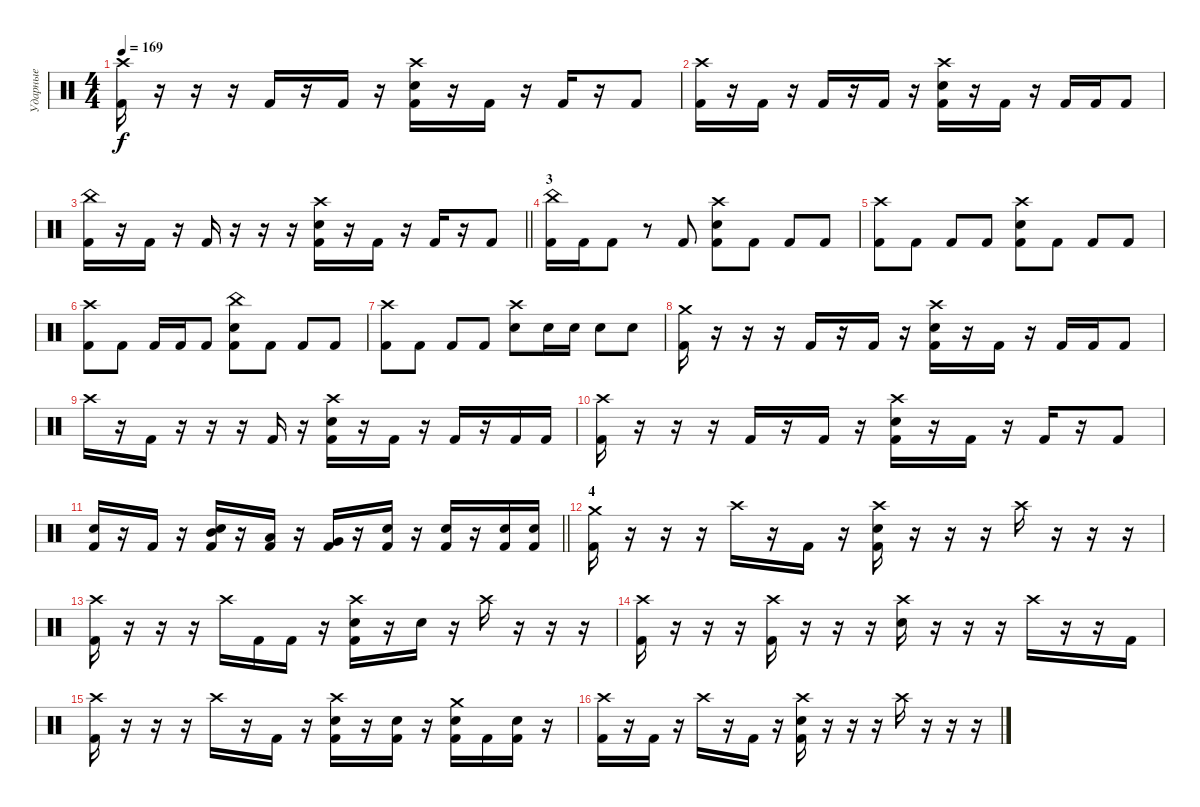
\track ("Ударные" "Ударные") {instrument percussion}
\staff {score}
\articulation defaults
\ts (4 4)
\tempo 169
\clef neutral
\ks c
("Crash high (hit)" "Kick (hit) 2").16{dy f} r.16 r.16 r.16 "Kick (hit) 2".16 r.16 "Kick (hit) 2".16 r.16 ("Crash high (hit)" "Snare (hit) 2" "Kick (hit) 2").16 r.16 "Kick (hit) 2".16 r.16 "Kick (hit) 2".16 r.16 "Kick (hit) 2".8 |
("Crash high (hit)" "Kick (hit) 2").16 r.16 "Kick (hit) 2".16 r.16 "Kick (hit) 2".16 r.16 "Kick (hit) 2".16 r.16 ("Crash high (hit)" "Snare (hit) 2" "Kick (hit) 2").16 r.16 "Kick (hit) 2".16 r.16 "Kick (hit) 2".16 "Kick (hit) 2".16 "Kick (hit) 2".8 |
\barLineRight lightlight
("China (hit)" "Kick (hit) 2").16 r.16 "Kick (hit) 2".16 r.16 "Kick (hit) 2".16 r.16 r.16 r.16 ("Crash high (hit)" "Snare (hit) 2" "Kick (hit) 2").16 r.16 "Kick (hit) 2".16 r.16 "Kick (hit) 2".16 r.16 "Kick (hit) 2".8 |
\section ("" "3")
("China (hit)" "Kick (hit) 2").16 "Kick (hit) 2".16 "Kick (hit) 2".8 r.8 "Kick (hit) 2".8 ("Crash high (hit)" "Snare (hit) 2" "Kick (hit) 2").8 "Kick (hit) 2".8 "Kick (hit) 2".8 "Kick (hit) 2".8 |
("Crash high (hit)" "Kick (hit) 2").8 "Kick (hit) 2".8 "Kick (hit) 2".8 "Kick (hit) 2".8 ("Crash high (hit)" "Snare (hit) 2" "Kick (hit) 2").8 "Kick (hit) 2".8 "Kick (hit) 2".8 "Kick (hit) 2".8 |
("Crash high (hit)" "Kick (hit) 2").8 "Kick (hit) 2".8 "Kick (hit) 2".16 "Kick (hit) 2".16 "Kick (hit) 2".8 ("China (hit)" "Snare (hit) 2" "Kick (hit) 2").8 "Kick (hit) 2".8 "Kick (hit) 2".8 "Kick (hit) 2".8 |
("Crash high (hit)" "Kick (hit) 2").8 "Kick (hit) 2".8 "Kick (hit) 2".8 "Kick (hit) 2".8 ("Crash high (hit)" "Snare (hit) 2").8 "Snare (hit) 2".16 "Snare (hit) 2".16 "Snare (hit) 2".8 "Snare (hit) 2".8 |
("Crash medium (hit)" "Kick (hit) 2").16 r.16 r.16 r.16 "Kick (hit) 2".16 r.16 "Kick (hit) 2".16 r.16 ("Crash high (hit)" "Snare (hit) 2" "Kick (hit) 2").16 r.16 "Kick (hit) 2".16 r.16 "Kick (hit) 2".16 "Kick (hit) 2".16 "Kick (hit) 2".8 |
"Crash high (hit)".16 r.16 "Kick (hit) 2".16 r.16 r.16 r.16 "Kick (hit) 2".16 r.16 ("Crash high (hit)" "Snare (hit) 2" "Kick (hit) 2").16 r.16 "Kick (hit) 2".16 r.16 "Kick (hit) 2".16 r.16 "Kick (hit) 2".16 "Kick (hit) 2".16 |
("Crash high (hit)" "Kick (hit) 2").16 r.16 r.16 r.16 "Kick (hit) 2".16 r.16 "Kick (hit) 2".16 r.16 ("Crash high (hit)" "Snare (hit) 2" "Kick (hit) 2").16 r.16 "Kick (hit) 2".16 r.16 "Kick (hit) 2".16 r.16 "Kick (hit) 2".8 |
\barLineRight lightlight
("Snare (hit) 2" "Kick (hit) 2").16 r.16 "Kick (hit) 2".16 r.16 ("Snare (hit) 2" "Mid Tom (hit)" "Kick (hit) 2").16 r.16 ("Low Tom (hit)" "Kick (hit) 2").16 r.16 ("Very Low Tom (hit)" "Kick (hit) 2").16 r.16 ("Snare (hit) 2" "Kick (hit) 2").16 r.16 ("Snare (hit) 2" "Kick (hit) 2").16 r.16 ("Snare (hit) 2" "Kick (hit) 2").16 ("Snare (hit) 2" "Kick (hit) 2").16 |
\section ("" "4")
("Crash medium (hit)" "Kick (hit) 2").16 r.16 r.16 r.16 "Crash high (hit)".16 r.16 "Kick (hit) 2".16 r.16 ("Crash high (hit)" "Snare (hit) 2" "Kick (hit) 2").16 r.16 r.16 r.16 "Crash high (hit)".16 r.16 r.16 r.16 |
("Crash high (hit)" "Kick (hit) 2").16 r.16 r.16 r.16 "Crash high (hit)".16 "Kick (hit) 2".16 "Kick (hit) 2".16 r.16 ("Crash high (hit)" "Snare (hit) 2" "Kick (hit) 2").16 r.16 "Snare (hit) 2".16 r.16 "Crash high (hit)".16 r.16 r.16 r.16 |
("Crash high (hit)" "Kick (hit) 2").16 r.16 r.16 r.16 ("Crash high (hit)" "Kick (hit) 2").16 r.16 r.16 r.16 ("Crash high (hit)" "Snare (hit) 2").16 r.16 r.16 r.16 "Crash high (hit)".16 r.16 r.16 "Kick (hit) 2".16 |
("Crash high (hit)" "Kick (hit) 2").16 r.16 r.16 r.16 "Crash high (hit)".16 r.16 "Kick (hit) 2".16 r.16 ("Crash high (hit)" "Snare (hit) 2" "Kick (hit) 2").16 r.16 ("Snare (hit) 2" "Kick (hit) 2").16 r.16 ("Crash medium (hit)" "Snare (hit) 2" "Kick (hit) 2").16 "Kick (hit) 2".16 ("Snare (hit) 2" "Kick (hit) 2").16 r.16 |
("Crash high (hit)" "Kick (hit) 2").16 r.16 "Kick (hit) 2".16 r.16 "Crash high (hit)".16 r.16 "Kick (hit) 2".16 r.16 ("Crash high (hit)" "Snare (hit) 2" "Kick (hit) 2").16 r.16 r.16 r.16 "Crash high (hit)".16 r.16 r.16 r.16
